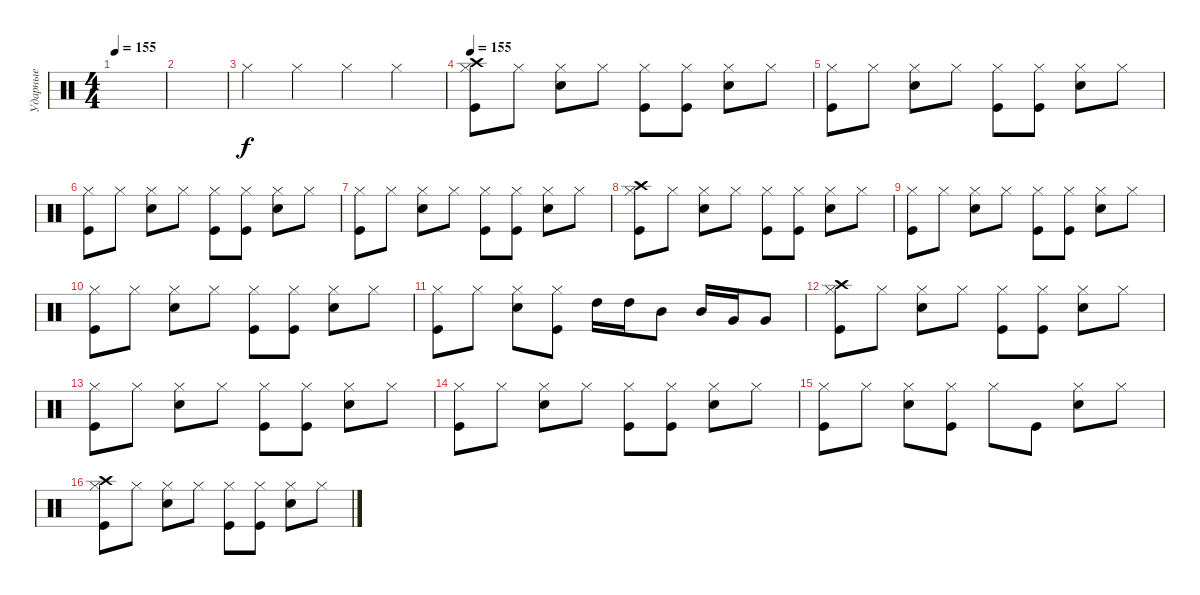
\track ("Ударные" "Ударные") {instrument percussion}
\staff {score}
\articulation defaults
\ts (4 4)
\tempo 155
\clef neutral
\ks c
|
|
"Hi-Hat (closed)".4 "Hi-Hat (closed)".4 "Hi-Hat (closed)".4 "Hi-Hat (closed)".4 |
\tempo 155
("Crash high (hit)" "Hi-Hat (closed)" "Kick (hit)").8 "Hi-Hat (closed)".8 ("Hi-Hat (closed)" "Snare (hit) 2").8 "Hi-Hat (closed)".8 ("Hi-Hat (closed)" "Kick (hit)").8 ("Hi-Hat (closed)" "Kick (hit)").8 ("Hi-Hat (closed)" "Snare (hit) 2").8 "Hi-Hat (closed)".8 |
("Hi-Hat (closed)" "Kick (hit)").8 "Hi-Hat (closed)".8 ("Hi-Hat (closed)" "Snare (hit) 2").8 "Hi-Hat (closed)".8 ("Hi-Hat (closed)" "Kick (hit)").8 ("Hi-Hat (closed)" "Kick (hit)").8 ("Hi-Hat (closed)" "Snare (hit) 2").8 "Hi-Hat (closed)".8 |
("Hi-Hat (closed)" "Kick (hit)").8 "Hi-Hat (closed)".8 ("Hi-Hat (closed)" "Snare (hit) 2").8 "Hi-Hat (closed)".8 ("Hi-Hat (closed)" "Kick (hit)").8 ("Hi-Hat (closed)" "Kick (hit)").8 ("Hi-Hat (closed)" "Snare (hit) 2").8 "Hi-Hat (closed)".8 |
("Hi-Hat (closed)" "Kick (hit)").8 "Hi-Hat (closed)".8 ("Hi-Hat (closed)" "Snare (hit) 2").8 "Hi-Hat (closed)".8 ("Hi-Hat (closed)" "Kick (hit)").8 ("Hi-Hat (closed)" "Kick (hit)").8 ("Hi-Hat (closed)" "Snare (hit) 2").8 "Hi-Hat (closed)".8 |
("Crash high (hit)" "Hi-Hat (closed)" "Kick (hit)").8 "Hi-Hat (closed)".8 ("Hi-Hat (closed)" "Snare (hit) 2").8 "Hi-Hat (closed)".8 ("Hi-Hat (closed)" "Kick (hit)").8 ("Hi-Hat (closed)" "Kick (hit)").8 ("Hi-Hat (closed)" "Snare (hit) 2").8 "Hi-Hat (closed)".8 |
("Hi-Hat (closed)" "Kick (hit)").8 "Hi-Hat (closed)".8 ("Hi-Hat (closed)" "Snare (hit) 2").8 "Hi-Hat (closed)".8 ("Hi-Hat (closed)" "Kick (hit)").8 ("Hi-Hat (closed)" "Kick (hit)").8 ("Hi-Hat (closed)" "Snare (hit) 2").8 "Hi-Hat (closed)".8 |
("Hi-Hat (closed)" "Kick (hit)").8 "Hi-Hat (closed)".8 ("Hi-Hat (closed)" "Snare (hit) 2").8 "Hi-Hat (closed)".8 ("Hi-Hat (closed)" "Kick (hit)").8 ("Hi-Hat (closed)" "Kick (hit)").8 ("Hi-Hat (closed)" "Snare (hit) 2").8 "Hi-Hat (closed)".8 |
("Hi-Hat (closed)" "Kick (hit)").8 "Hi-Hat (closed)".8 ("Hi-Hat (closed)" "Snare (hit) 2").8 ("Hi-Hat (closed)" "Kick (hit)").8 "High Tom (hit)".16 "High Tom (hit)".16 "Mid Tom (hit)".8 "Mid Tom (hit)".16 "Very Low Tom (hit)".16 "Very Low Tom (hit)".8 |
("Crash high (hit)" "Hi-Hat (closed)" "Kick (hit)").8 "Hi-Hat (closed)".8 ("Hi-Hat (closed)" "Snare (hit) 2").8 "Hi-Hat (closed)".8 ("Hi-Hat (closed)" "Kick (hit)").8 ("Hi-Hat (closed)" "Kick (hit)").8 ("Hi-Hat (closed)" "Snare (hit) 2").8 "Hi-Hat (closed)".8 |
("Hi-Hat (closed)" "Kick (hit)").8 "Hi-Hat (closed)".8 ("Hi-Hat (closed)" "Snare (hit) 2").8 "Hi-Hat (closed)".8 ("Hi-Hat (closed)" "Kick (hit)").8 ("Hi-Hat (closed)" "Kick (hit)").8 ("Hi-Hat (closed)" "Snare (hit) 2").8 "Hi-Hat (closed)".8 |
("Hi-Hat (closed)" "Kick (hit)").8 "Hi-Hat (closed)".8 ("Hi-Hat (closed)" "Snare (hit) 2").8 "Hi-Hat (closed)".8 ("Hi-Hat (closed)" "Kick (hit)").8 ("Hi-Hat (closed)" "Kick (hit)").8 ("Hi-Hat (closed)" "Snare (hit) 2").8 "Hi-Hat (closed)".8 |
("Hi-Hat (closed)" "Kick (hit)").8 "Hi-Hat (closed)".8 ("Hi-Hat (closed)" "Snare (hit) 2").8 ("Hi-Hat (closed)" "Kick (hit)").8 "Hi-Hat (closed)".8 "Kick (hit)".8 ("Hi-Hat (closed)" "Snare (hit) 2").8 "Hi-Hat (closed)".8 |
("Crash high (hit)" "Hi-Hat (closed)" "Kick (hit)").8 "Hi-Hat (closed)".8 ("Hi-Hat (closed)" "Snare (hit) 2").8 "Hi-Hat (closed)".8 ("Hi-Hat (closed)" "Kick (hit)").8 ("Hi-Hat (closed)" "Kick (hit)").8 ("Hi-Hat (closed)" "Snare (hit) 2").8 "Hi-Hat (closed)".8
